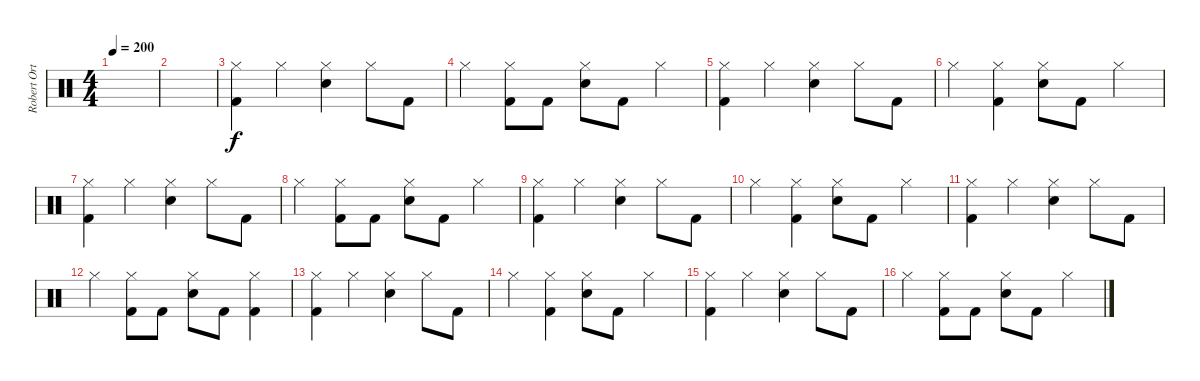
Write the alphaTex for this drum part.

\track ("Robert Ortiz - Drums" "Robert Ort") {instrument percussion}
\staff {score}
\articulation defaults
\ts (4 4)
\tempo 200
\clef neutral
\ks c
|
|
("Hi-Hat (closed)" "Kick (hit) 2").4{volume 12} "Hi-Hat (closed)".4 ("Hi-Hat (closed)" "Electric Snare (hit)").4 "Hi-Hat (closed)".8 "Kick (hit) 2".8 |
"Hi-Hat (closed)".4 ("Hi-Hat (closed)" "Kick (hit) 2").8 "Kick (hit) 2".8 ("Hi-Hat (closed)" "Electric Snare (hit)").8 "Kick (hit) 2".8 "Hi-Hat (closed)".4 |
("Hi-Hat (closed)" "Kick (hit) 2").4 "Hi-Hat (closed)".4 ("Hi-Hat (closed)" "Electric Snare (hit)").4 "Hi-Hat (closed)".8 "Kick (hit) 2".8 |
"Hi-Hat (closed)".4 ("Hi-Hat (closed)" "Kick (hit) 2").4 ("Hi-Hat (closed)" "Electric Snare (hit)").8 "Kick (hit) 2".8 "Hi-Hat (closed)".4 |
("Hi-Hat (closed)" "Kick (hit) 2").4 "Hi-Hat (closed)".4 ("Hi-Hat (closed)" "Electric Snare (hit)").4 "Hi-Hat (closed)".8 "Kick (hit) 2".8 |
"Hi-Hat (closed)".4 ("Hi-Hat (closed)" "Kick (hit) 2").8 "Kick (hit) 2".8 ("Hi-Hat (closed)" "Electric Snare (hit)").8 "Kick (hit) 2".8 "Hi-Hat (closed)".4 |
("Hi-Hat (closed)" "Kick (hit) 2").4 "Hi-Hat (closed)".4 ("Hi-Hat (closed)" "Electric Snare (hit)").4 "Hi-Hat (closed)".8 "Kick (hit) 2".8 |
"Hi-Hat (closed)".4 ("Hi-Hat (closed)" "Kick (hit) 2").4 ("Hi-Hat (closed)" "Electric Snare (hit)").8 "Kick (hit) 2".8 "Hi-Hat (closed)".4 |
("Hi-Hat (closed)" "Kick (hit) 2").4 "Hi-Hat (closed)".4 ("Hi-Hat (closed)" "Electric Snare (hit)").4 "Hi-Hat (closed)".8 "Kick (hit) 2".8 |
"Hi-Hat (closed)".4 ("Hi-Hat (closed)" "Kick (hit) 2").8 "Kick (hit) 2".8 ("Hi-Hat (closed)" "Electric Snare (hit)").8 "Kick (hit) 2".8 ("Hi-Hat (closed)" "Kick (hit) 2").4 |
("Hi-Hat (closed)" "Kick (hit) 2").4 "Hi-Hat (closed)".4 ("Hi-Hat (closed)" "Electric Snare (hit)").4 "Hi-Hat (closed)".8 "Kick (hit) 2".8 |
"Hi-Hat (closed)".4 ("Hi-Hat (closed)" "Kick (hit) 2").4 ("Hi-Hat (closed)" "Electric Snare (hit)").8 "Kick (hit) 2".8 "Hi-Hat (closed)".4 |
("Hi-Hat (closed)" "Kick (hit) 2").4 "Hi-Hat (closed)".4 ("Hi-Hat (closed)" "Electric Snare (hit)").4 "Hi-Hat (closed)".8 "Kick (hit) 2".8 |
"Hi-Hat (closed)".4 ("Hi-Hat (closed)" "Kick (hit) 2").8 "Kick (hit) 2".8 ("Hi-Hat (closed)" "Electric Snare (hit)").8 "Kick (hit) 2".8 "Hi-Hat (closed)".4
